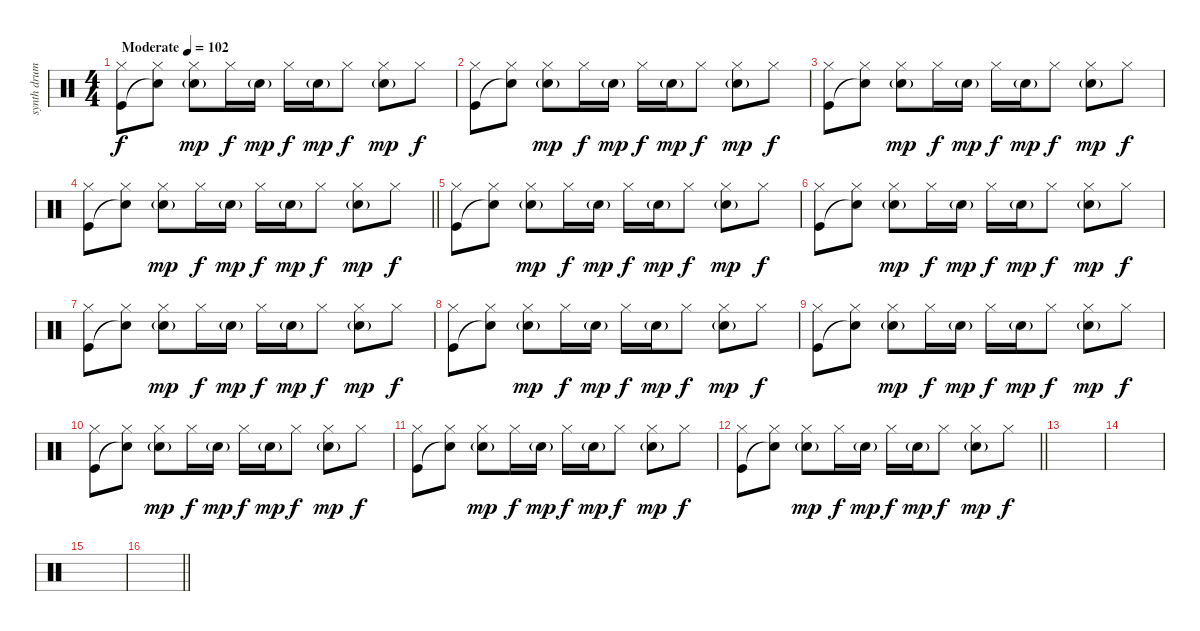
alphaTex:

\track ("synth drums" "synth drum") {instrument percussion}
\staff {score}
\articulation defaults
\ts (4 4)
\tempo (102 "Moderate")
\clef neutral
\ks c
("Hi-Hat (closed)" "Kick (hit)").8{dy f volume 10} ("Hi-Hat (closed)" "Snare (hit)"{t}).8 ("Hi-Hat (closed)" "Electric Snare (hit)"{g}).8{dy mp} "Hi-Hat (closed)".16{dy f} "Electric Snare (hit)"{g}.16{dy mp} "Hi-Hat (closed)".16{dy f} "Electric Snare (hit)"{g}.16{dy mp} "Hi-Hat (closed)".8{dy f} ("Hi-Hat (closed)" "Electric Snare (hit)"{g}).8{dy mp} "Hi-Hat (closed)".8{dy f} |
("Hi-Hat (closed)" "Kick (hit)").8 ("Hi-Hat (closed)" "Snare (hit)"{t}).8 ("Hi-Hat (closed)" "Electric Snare (hit)"{g}).8{dy mp} "Hi-Hat (closed)".16{dy f} "Electric Snare (hit)"{g}.16{dy mp} "Hi-Hat (closed)".16{dy f} "Electric Snare (hit)"{g}.16{dy mp} "Hi-Hat (closed)".8{dy f} ("Hi-Hat (closed)" "Electric Snare (hit)"{g}).8{dy mp} "Hi-Hat (closed)".8{dy f} |
("Hi-Hat (closed)" "Kick (hit)").8 ("Hi-Hat (closed)" "Snare (hit)"{t}).8 ("Hi-Hat (closed)" "Electric Snare (hit)"{g}).8{dy mp} "Hi-Hat (closed)".16{dy f} "Electric Snare (hit)"{g}.16{dy mp} "Hi-Hat (closed)".16{dy f} "Electric Snare (hit)"{g}.16{dy mp} "Hi-Hat (closed)".8{dy f} ("Hi-Hat (closed)" "Electric Snare (hit)"{g}).8{dy mp} "Hi-Hat (closed)".8{dy f} |
\barLineRight lightlight
("Hi-Hat (closed)" "Kick (hit)").8 ("Hi-Hat (closed)" "Snare (hit)"{t}).8 ("Hi-Hat (closed)" "Electric Snare (hit)"{g}).8{dy mp} "Hi-Hat (closed)".16{dy f} "Electric Snare (hit)"{g}.16{dy mp} "Hi-Hat (closed)".16{dy f} "Electric Snare (hit)"{g}.16{dy mp} "Hi-Hat (closed)".8{dy f} ("Hi-Hat (closed)" "Electric Snare (hit)"{g}).8{dy mp} "Hi-Hat (closed)".8{dy f} |
("Hi-Hat (closed)" "Kick (hit)").8{volume 15} ("Hi-Hat (closed)" "Snare (hit)"{t}).8 ("Hi-Hat (closed)" "Electric Snare (hit)"{g}).8{dy mp} "Hi-Hat (closed)".16{dy f} "Electric Snare (hit)"{g}.16{dy mp} "Hi-Hat (closed)".16{dy f} "Electric Snare (hit)"{g}.16{dy mp} "Hi-Hat (closed)".8{dy f} ("Hi-Hat (closed)" "Electric Snare (hit)"{g}).8{dy mp} "Hi-Hat (closed)".8{dy f} |
("Hi-Hat (closed)" "Kick (hit)").8 ("Hi-Hat (closed)" "Snare (hit)"{t}).8 ("Hi-Hat (closed)" "Electric Snare (hit)"{g}).8{dy mp} "Hi-Hat (closed)".16{dy f} "Electric Snare (hit)"{g}.16{dy mp} "Hi-Hat (closed)".16{dy f} "Electric Snare (hit)"{g}.16{dy mp} "Hi-Hat (closed)".8{dy f} ("Hi-Hat (closed)" "Electric Snare (hit)"{g}).8{dy mp} "Hi-Hat (closed)".8{dy f} |
("Hi-Hat (closed)" "Kick (hit)").8 ("Hi-Hat (closed)" "Snare (hit)"{t}).8 ("Hi-Hat (closed)" "Electric Snare (hit)"{g}).8{dy mp} "Hi-Hat (closed)".16{dy f} "Electric Snare (hit)"{g}.16{dy mp} "Hi-Hat (closed)".16{dy f} "Electric Snare (hit)"{g}.16{dy mp} "Hi-Hat (closed)".8{dy f} ("Hi-Hat (closed)" "Electric Snare (hit)"{g}).8{dy mp} "Hi-Hat (closed)".8{dy f} |
("Hi-Hat (closed)" "Kick (hit)").8 ("Hi-Hat (closed)" "Snare (hit)"{t}).8 ("Hi-Hat (closed)" "Electric Snare (hit)"{g}).8{dy mp} "Hi-Hat (closed)".16{dy f} "Electric Snare (hit)"{g}.16{dy mp} "Hi-Hat (closed)".16{dy f} "Electric Snare (hit)"{g}.16{dy mp} "Hi-Hat (closed)".8{dy f} ("Hi-Hat (closed)" "Electric Snare (hit)"{g}).8{dy mp} "Hi-Hat (closed)".8{dy f} |
("Hi-Hat (closed)" "Kick (hit)").8 ("Hi-Hat (closed)" "Snare (hit)"{t}).8 ("Hi-Hat (closed)" "Electric Snare (hit)"{g}).8{dy mp} "Hi-Hat (closed)".16{dy f} "Electric Snare (hit)"{g}.16{dy mp} "Hi-Hat (closed)".16{dy f} "Electric Snare (hit)"{g}.16{dy mp} "Hi-Hat (closed)".8{dy f} ("Hi-Hat (closed)" "Electric Snare (hit)"{g}).8{dy mp} "Hi-Hat (closed)".8{dy f} |
("Hi-Hat (closed)" "Kick (hit)").8 ("Hi-Hat (closed)" "Snare (hit)"{t}).8 ("Hi-Hat (closed)" "Electric Snare (hit)"{g}).8{dy mp} "Hi-Hat (closed)".16{dy f} "Electric Snare (hit)"{g}.16{dy mp} "Hi-Hat (closed)".16{dy f} "Electric Snare (hit)"{g}.16{dy mp} "Hi-Hat (closed)".8{dy f} ("Hi-Hat (closed)" "Electric Snare (hit)"{g}).8{dy mp} "Hi-Hat (closed)".8{dy f} |
("Hi-Hat (closed)" "Kick (hit)").8 ("Hi-Hat (closed)" "Snare (hit)"{t}).8 ("Hi-Hat (closed)" "Electric Snare (hit)"{g}).8{dy mp} "Hi-Hat (closed)".16{dy f} "Electric Snare (hit)"{g}.16{dy mp} "Hi-Hat (closed)".16{dy f} "Electric Snare (hit)"{g}.16{dy mp} "Hi-Hat (closed)".8{dy f} ("Hi-Hat (closed)" "Electric Snare (hit)"{g}).8{dy mp} "Hi-Hat (closed)".8{dy f} |
\barLineRight lightlight
("Hi-Hat (closed)" "Kick (hit)").8 ("Hi-Hat (closed)" "Snare (hit)"{t}).8 ("Hi-Hat (closed)" "Electric Snare (hit)"{g}).8{dy mp} "Hi-Hat (closed)".16{dy f} "Electric Snare (hit)"{g}.16{dy mp} "Hi-Hat (closed)".16{dy f} "Electric Snare (hit)"{g}.16{dy mp} "Hi-Hat (closed)".8{dy f} ("Hi-Hat (closed)" "Electric Snare (hit)"{g}).8{dy mp} "Hi-Hat (closed)".8{dy f} |
|
|
|
\barLineRight lightlight
